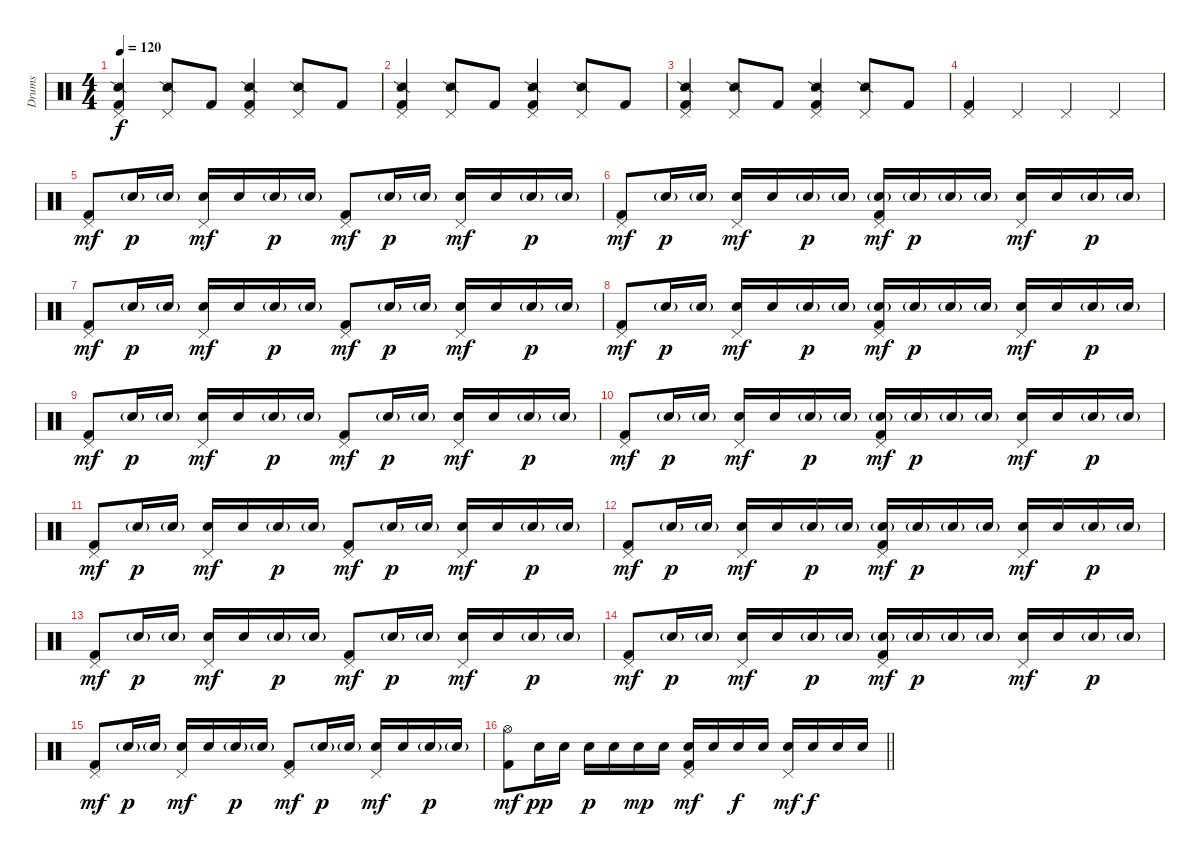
\track ("Drums" "Drums") {instrument percussion}
\staff {score}
\articulation defaults
\ts (4 4)
\tempo 120
\clef neutral
\ks c
("Pedal Hi-Hat (hit)" "Snare (side stick) 2" "Kick (hit) 2").4{dy f} ("Pedal Hi-Hat (hit)" "Snare (side stick) 2").8 "Kick (hit) 2".8 ("Pedal Hi-Hat (hit)" "Snare (side stick) 2" "Kick (hit) 2").4 ("Pedal Hi-Hat (hit)" "Snare (side stick) 2").8 "Kick (hit) 2".8 |
("Pedal Hi-Hat (hit)" "Snare (side stick) 2" "Kick (hit) 2").4 ("Pedal Hi-Hat (hit)" "Snare (side stick) 2").8 "Kick (hit) 2".8 ("Pedal Hi-Hat (hit)" "Snare (side stick) 2" "Kick (hit) 2").4 ("Pedal Hi-Hat (hit)" "Snare (side stick) 2").8 "Kick (hit) 2".8 |
("Pedal Hi-Hat (hit)" "Snare (side stick) 2" "Kick (hit) 2").4 ("Pedal Hi-Hat (hit)" "Snare (side stick) 2").8 "Kick (hit) 2".8 ("Pedal Hi-Hat (hit)" "Snare (side stick) 2" "Kick (hit) 2").4 ("Pedal Hi-Hat (hit)" "Snare (side stick) 2").8 "Kick (hit) 2".8 |
("Pedal Hi-Hat (hit)" "Kick (hit) 2").4 "Pedal Hi-Hat (hit)".4 "Pedal Hi-Hat (hit)".4 "Pedal Hi-Hat (hit)".4 |
("Pedal Hi-Hat (hit)" "Kick (hit) 2").8{dy mf} "Electric Snare (hit)"{g}.16{dy p} "Electric Snare (hit)"{g}.16 ("Pedal Hi-Hat (hit)" "Electric Snare (hit)").16{dy mf} "Electric Snare (hit)".16 "Electric Snare (hit)"{g}.16{dy p} "Electric Snare (hit)"{g}.16 ("Pedal Hi-Hat (hit)" "Kick (hit) 2").8{dy mf} "Electric Snare (hit)"{g}.16{dy p} "Electric Snare (hit)"{g}.16 ("Pedal Hi-Hat (hit)" "Electric Snare (hit)").16{dy mf} "Electric Snare (hit)".16 "Electric Snare (hit)"{g}.16{dy p} "Electric Snare (hit)"{g}.16 |
("Pedal Hi-Hat (hit)" "Kick (hit) 2").8{dy mf} "Electric Snare (hit)"{g}.16{dy p} "Electric Snare (hit)"{g}.16 ("Pedal Hi-Hat (hit)" "Electric Snare (hit)").16{dy mf} "Electric Snare (hit)".16 "Electric Snare (hit)"{g}.16{dy p} "Electric Snare (hit)"{g}.16 ("Pedal Hi-Hat (hit)" "Electric Snare (hit)"{g} "Kick (hit) 2").16{dy mf} "Electric Snare (hit)"{g}.16{dy p} "Electric Snare (hit)"{g}.16 "Electric Snare (hit)"{g}.16 ("Pedal Hi-Hat (hit)" "Electric Snare (hit)").16{dy mf} "Electric Snare (hit)".16 "Electric Snare (hit)"{g}.16{dy p} "Electric Snare (hit)"{g}.16 |
("Pedal Hi-Hat (hit)" "Kick (hit) 2").8{dy mf} "Electric Snare (hit)"{g}.16{dy p} "Electric Snare (hit)"{g}.16 ("Pedal Hi-Hat (hit)" "Electric Snare (hit)").16{dy mf} "Electric Snare (hit)".16 "Electric Snare (hit)"{g}.16{dy p} "Electric Snare (hit)"{g}.16 ("Pedal Hi-Hat (hit)" "Kick (hit) 2").8{dy mf} "Electric Snare (hit)"{g}.16{dy p} "Electric Snare (hit)"{g}.16 ("Pedal Hi-Hat (hit)" "Electric Snare (hit)").16{dy mf} "Electric Snare (hit)".16 "Electric Snare (hit)"{g}.16{dy p} "Electric Snare (hit)"{g}.16 |
("Pedal Hi-Hat (hit)" "Kick (hit) 2").8{dy mf} "Electric Snare (hit)"{g}.16{dy p} "Electric Snare (hit)"{g}.16 ("Pedal Hi-Hat (hit)" "Electric Snare (hit)").16{dy mf} "Electric Snare (hit)".16 "Electric Snare (hit)"{g}.16{dy p} "Electric Snare (hit)"{g}.16 ("Pedal Hi-Hat (hit)" "Electric Snare (hit)"{g} "Kick (hit) 2").16{dy mf} "Electric Snare (hit)"{g}.16{dy p} "Electric Snare (hit)"{g}.16 "Electric Snare (hit)"{g}.16 ("Pedal Hi-Hat (hit)" "Electric Snare (hit)").16{dy mf} "Electric Snare (hit)".16 "Electric Snare (hit)"{g}.16{dy p} "Electric Snare (hit)"{g}.16 |
("Pedal Hi-Hat (hit)" "Kick (hit) 2").8{dy mf} "Electric Snare (hit)"{g}.16{dy p} "Electric Snare (hit)"{g}.16 ("Pedal Hi-Hat (hit)" "Electric Snare (hit)").16{dy mf} "Electric Snare (hit)".16 "Electric Snare (hit)"{g}.16{dy p} "Electric Snare (hit)"{g}.16 ("Pedal Hi-Hat (hit)" "Kick (hit) 2").8{dy mf} "Electric Snare (hit)"{g}.16{dy p} "Electric Snare (hit)"{g}.16 ("Pedal Hi-Hat (hit)" "Electric Snare (hit)").16{dy mf} "Electric Snare (hit)".16 "Electric Snare (hit)"{g}.16{dy p} "Electric Snare (hit)"{g}.16 |
("Pedal Hi-Hat (hit)" "Kick (hit) 2").8{dy mf} "Electric Snare (hit)"{g}.16{dy p} "Electric Snare (hit)"{g}.16 ("Pedal Hi-Hat (hit)" "Electric Snare (hit)").16{dy mf} "Electric Snare (hit)".16 "Electric Snare (hit)"{g}.16{dy p} "Electric Snare (hit)"{g}.16 ("Pedal Hi-Hat (hit)" "Electric Snare (hit)"{g} "Kick (hit) 2").16{dy mf} "Electric Snare (hit)"{g}.16{dy p} "Electric Snare (hit)"{g}.16 "Electric Snare (hit)"{g}.16 ("Pedal Hi-Hat (hit)" "Electric Snare (hit)").16{dy mf} "Electric Snare (hit)".16 "Electric Snare (hit)"{g}.16{dy p} "Electric Snare (hit)"{g}.16 |
("Pedal Hi-Hat (hit)" "Kick (hit) 2").8{dy mf} "Electric Snare (hit)"{g}.16{dy p} "Electric Snare (hit)"{g}.16 ("Pedal Hi-Hat (hit)" "Electric Snare (hit)").16{dy mf} "Electric Snare (hit)".16 "Electric Snare (hit)"{g}.16{dy p} "Electric Snare (hit)"{g}.16 ("Pedal Hi-Hat (hit)" "Kick (hit) 2").8{dy mf} "Electric Snare (hit)"{g}.16{dy p} "Electric Snare (hit)"{g}.16 ("Pedal Hi-Hat (hit)" "Electric Snare (hit)").16{dy mf} "Electric Snare (hit)".16 "Electric Snare (hit)"{g}.16{dy p} "Electric Snare (hit)"{g}.16 |
("Pedal Hi-Hat (hit)" "Kick (hit) 2").8{dy mf} "Electric Snare (hit)"{g}.16{dy p} "Electric Snare (hit)"{g}.16 ("Pedal Hi-Hat (hit)" "Electric Snare (hit)").16{dy mf} "Electric Snare (hit)".16 "Electric Snare (hit)"{g}.16{dy p} "Electric Snare (hit)"{g}.16 ("Pedal Hi-Hat (hit)" "Electric Snare (hit)"{g} "Kick (hit) 2").16{dy mf} "Electric Snare (hit)"{g}.16{dy p} "Electric Snare (hit)"{g}.16 "Electric Snare (hit)"{g}.16 ("Pedal Hi-Hat (hit)" "Electric Snare (hit)").16{dy mf} "Electric Snare (hit)".16 "Electric Snare (hit)"{g}.16{dy p} "Electric Snare (hit)"{g}.16 |
("Pedal Hi-Hat (hit)" "Kick (hit) 2").8{dy mf} "Electric Snare (hit)"{g}.16{dy p} "Electric Snare (hit)"{g}.16 ("Pedal Hi-Hat (hit)" "Electric Snare (hit)").16{dy mf} "Electric Snare (hit)".16 "Electric Snare (hit)"{g}.16{dy p} "Electric Snare (hit)"{g}.16 ("Pedal Hi-Hat (hit)" "Kick (hit) 2").8{dy mf} "Electric Snare (hit)"{g}.16{dy p} "Electric Snare (hit)"{g}.16 ("Pedal Hi-Hat (hit)" "Electric Snare (hit)").16{dy mf} "Electric Snare (hit)".16 "Electric Snare (hit)"{g}.16{dy p} "Electric Snare (hit)"{g}.16 |
("Pedal Hi-Hat (hit)" "Kick (hit) 2").8{dy mf} "Electric Snare (hit)"{g}.16{dy p} "Electric Snare (hit)"{g}.16 ("Pedal Hi-Hat (hit)" "Electric Snare (hit)").16{dy mf} "Electric Snare (hit)".16 "Electric Snare (hit)"{g}.16{dy p} "Electric Snare (hit)"{g}.16 ("Pedal Hi-Hat (hit)" "Electric Snare (hit)"{g} "Kick (hit) 2").16{dy mf} "Electric Snare (hit)"{g}.16{dy p} "Electric Snare (hit)"{g}.16 "Electric Snare (hit)"{g}.16 ("Pedal Hi-Hat (hit)" "Electric Snare (hit)").16{dy mf} "Electric Snare (hit)".16 "Electric Snare (hit)"{g}.16{dy p} "Electric Snare (hit)"{g}.16 |
("Pedal Hi-Hat (hit)" "Kick (hit) 2").8{dy mf} "Electric Snare (hit)"{g}.16{dy p} "Electric Snare (hit)"{g}.16 ("Pedal Hi-Hat (hit)" "Electric Snare (hit)").16{dy mf} "Electric Snare (hit)".16 "Electric Snare (hit)"{g}.16{dy p} "Electric Snare (hit)"{g}.16 ("Pedal Hi-Hat (hit)" "Kick (hit) 2").8{dy mf} "Electric Snare (hit)"{g}.16{dy p} "Electric Snare (hit)"{g}.16 ("Pedal Hi-Hat (hit)" "Electric Snare (hit)").16{dy mf} "Electric Snare (hit)".16 "Electric Snare (hit)"{g}.16{dy p} "Electric Snare (hit)"{g}.16 |
\barLineRight lightlight
("Hi-Hat (open)" "Kick (hit) 2").8{dy mf} "Electric Snare (hit)".16{dy pp} "Electric Snare (hit)".16 "Electric Snare (hit)".16{dy p} "Electric Snare (hit)".16 "Electric Snare (hit)".16{dy mp} "Electric Snare (hit)".16 ("Pedal Hi-Hat (hit)" "Electric Snare (hit)" "Kick (hit) 2").16{dy mf} "Electric Snare (hit)".16 "Electric Snare (hit)".16{dy f} "Electric Snare (hit)".16 ("Pedal Hi-Hat (hit)" "Electric Snare (hit)").16{dy mf} "Electric Snare (hit)".16{dy f} "Electric Snare (hit)".16 "Electric Snare (hit)".16
